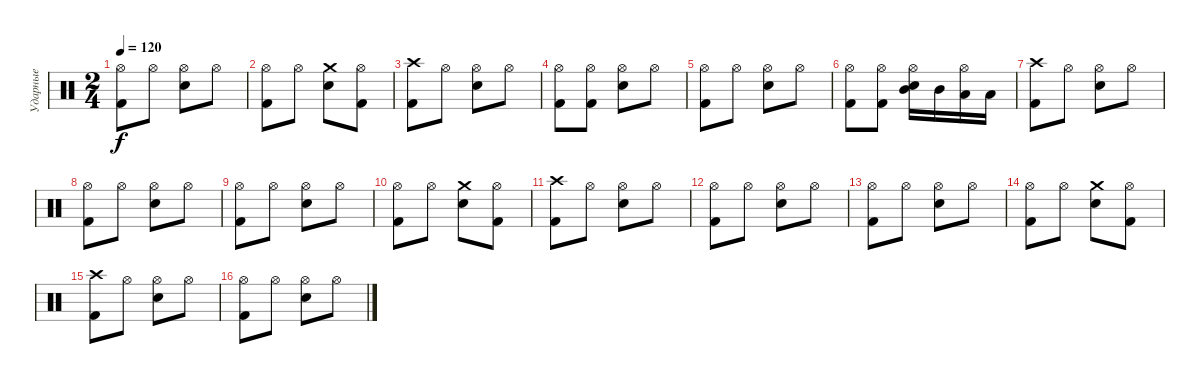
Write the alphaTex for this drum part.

\track ("Ударные" "Ударные") {instrument percussion}
\staff {score}
\articulation defaults
\ts (2 4)
\tempo 120
\clef neutral
\ks c
("Hi-Hat (open)" "Kick (hit) 2").8{dy f} "Hi-Hat (open)".8 ("Hi-Hat (open)" "Electric Snare (hit)").8 "Hi-Hat (open)".8 |
("Hi-Hat (open)" "Kick (hit) 2").8 "Hi-Hat (open)".8 ("Crash medium (hit)" "Electric Snare (hit)").8 ("Hi-Hat (open)" "Kick (hit) 2").8 |
("Crash high (hit)" "Kick (hit) 2").8 "Hi-Hat (open)".8 ("Hi-Hat (open)" "Electric Snare (hit)").8 "Hi-Hat (open)".8 |
("Hi-Hat (open)" "Kick (hit) 2").8 ("Hi-Hat (open)" "Kick (hit) 2").8 ("Hi-Hat (open)" "Electric Snare (hit)").8 "Hi-Hat (open)".8 |
("Hi-Hat (open)" "Kick (hit) 2").8 "Hi-Hat (open)".8 ("Hi-Hat (open)" "Electric Snare (hit)").8 "Hi-Hat (open)".8 |
("Hi-Hat (open)" "Kick (hit) 2").8 ("Hi-Hat (open)" "Kick (hit) 2").8 ("Hi-Hat (open)" "Mid Tom (hit)" "Electric Snare (hit)").16 "Mid Tom (hit)".16 ("Hi-Hat (open)" "Low Tom (hit)").16 "Low Tom (hit)".16 |
("Crash high (hit)" "Kick (hit) 2").8 "Hi-Hat (open)".8 ("Hi-Hat (open)" "Electric Snare (hit)").8 "Hi-Hat (open)".8 |
("Hi-Hat (open)" "Kick (hit) 2").8 "Hi-Hat (open)".8 ("Hi-Hat (open)" "Electric Snare (hit)").8 "Hi-Hat (open)".8 |
("Hi-Hat (open)" "Kick (hit) 2").8 "Hi-Hat (open)".8 ("Hi-Hat (open)" "Electric Snare (hit)").8 "Hi-Hat (open)".8 |
("Hi-Hat (open)" "Kick (hit) 2").8 "Hi-Hat (open)".8 ("Crash medium (hit)" "Electric Snare (hit)").8 ("Hi-Hat (open)" "Kick (hit) 2").8 |
("Crash high (hit)" "Kick (hit) 2").8 "Hi-Hat (open)".8 ("Hi-Hat (open)" "Electric Snare (hit)").8 "Hi-Hat (open)".8 |
("Hi-Hat (open)" "Kick (hit) 2").8 "Hi-Hat (open)".8 ("Hi-Hat (open)" "Electric Snare (hit)").8 "Hi-Hat (open)".8 |
("Hi-Hat (open)" "Kick (hit) 2").8 "Hi-Hat (open)".8 ("Hi-Hat (open)" "Electric Snare (hit)").8 "Hi-Hat (open)".8 |
("Hi-Hat (open)" "Kick (hit) 2").8 "Hi-Hat (open)".8 ("Crash medium (hit)" "Electric Snare (hit)").8 ("Hi-Hat (open)" "Kick (hit) 2").8 |
("Crash high (hit)" "Kick (hit) 2").8 "Hi-Hat (open)".8 ("Hi-Hat (open)" "Electric Snare (hit)").8 "Hi-Hat (open)".8 |
("Hi-Hat (open)" "Kick (hit) 2").8 "Hi-Hat (open)".8 ("Hi-Hat (open)" "Electric Snare (hit)").8 "Hi-Hat (open)".8
